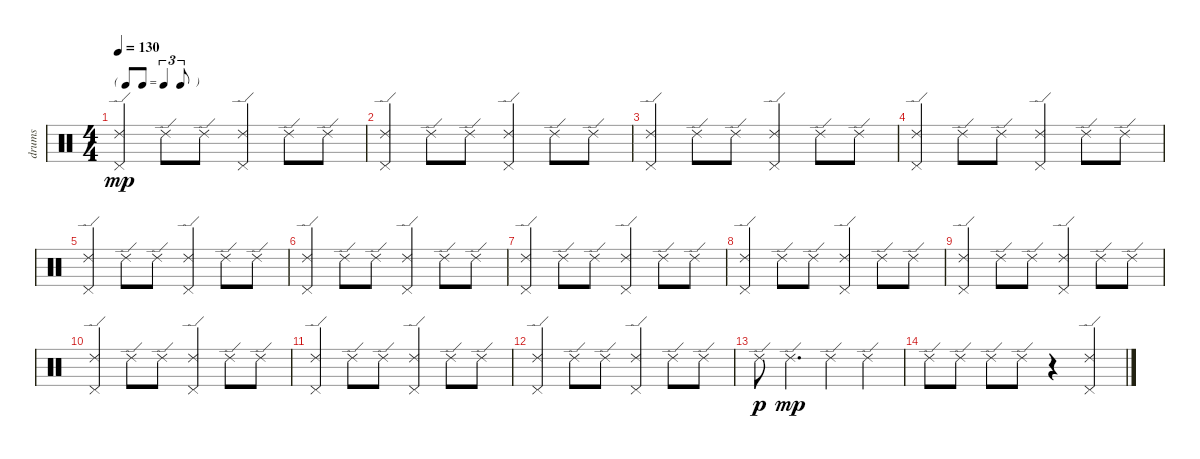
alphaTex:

\track ("drums" "drums") {instrument percussion}
\staff {score}
\articulation defaults
\ts (4 4)
\tf triplet8th
\tempo 130
\clef neutral
\ks c
("Pedal Hi-Hat (hit)" "Ride (edge) 2").4{dy mp} "Ride (edge) 2".8 "Ride (edge) 2".8 ("Pedal Hi-Hat (hit)" "Ride (edge) 2").4 "Ride (edge) 2".8 "Ride (edge) 2".8 |
("Pedal Hi-Hat (hit)" "Ride (edge) 2").4 "Ride (edge) 2".8 "Ride (edge) 2".8 ("Pedal Hi-Hat (hit)" "Ride (edge) 2").4 "Ride (edge) 2".8 "Ride (edge) 2".8 |
("Pedal Hi-Hat (hit)" "Ride (edge) 2").4 "Ride (edge) 2".8 "Ride (edge) 2".8 ("Pedal Hi-Hat (hit)" "Ride (edge) 2").4 "Ride (edge) 2".8 "Ride (edge) 2".8 |
("Pedal Hi-Hat (hit)" "Ride (edge) 2").4 "Ride (edge) 2".8 "Ride (edge) 2".8 ("Pedal Hi-Hat (hit)" "Ride (edge) 2").4 "Ride (edge) 2".8 "Ride (edge) 2".8 |
("Pedal Hi-Hat (hit)" "Ride (edge) 2").4 "Ride (edge) 2".8 "Ride (edge) 2".8 ("Pedal Hi-Hat (hit)" "Ride (edge) 2").4 "Ride (edge) 2".8 "Ride (edge) 2".8 |
("Pedal Hi-Hat (hit)" "Ride (edge) 2").4 "Ride (edge) 2".8 "Ride (edge) 2".8 ("Pedal Hi-Hat (hit)" "Ride (edge) 2").4 "Ride (edge) 2".8 "Ride (edge) 2".8 |
("Pedal Hi-Hat (hit)" "Ride (edge) 2").4 "Ride (edge) 2".8 "Ride (edge) 2".8 ("Pedal Hi-Hat (hit)" "Ride (edge) 2").4 "Ride (edge) 2".8 "Ride (edge) 2".8 |
("Pedal Hi-Hat (hit)" "Ride (edge) 2").4 "Ride (edge) 2".8 "Ride (edge) 2".8 ("Pedal Hi-Hat (hit)" "Ride (edge) 2").4 "Ride (edge) 2".8 "Ride (edge) 2".8 |
("Pedal Hi-Hat (hit)" "Ride (edge) 2").4 "Ride (edge) 2".8 "Ride (edge) 2".8 ("Pedal Hi-Hat (hit)" "Ride (edge) 2").4 "Ride (edge) 2".8 "Ride (edge) 2".8 |
("Pedal Hi-Hat (hit)" "Ride (edge) 2").4 "Ride (edge) 2".8 "Ride (edge) 2".8 ("Pedal Hi-Hat (hit)" "Ride (edge) 2").4 "Ride (edge) 2".8 "Ride (edge) 2".8 |
("Pedal Hi-Hat (hit)" "Ride (edge) 2").4 "Ride (edge) 2".8 "Ride (edge) 2".8 ("Pedal Hi-Hat (hit)" "Ride (edge) 2").4 "Ride (edge) 2".8 "Ride (edge) 2".8 |
("Pedal Hi-Hat (hit)" "Ride (edge) 2").4 "Ride (edge) 2".8 "Ride (edge) 2".8 ("Pedal Hi-Hat (hit)" "Ride (edge) 2").4 "Ride (edge) 2".8 "Ride (edge) 2".8 |
"Ride (edge) 2".8{dy p} "Ride (edge) 2".4{d dy mp} "Ride (edge) 2".4 "Ride (edge) 2".4 |
"Ride (edge) 2".8 "Ride (edge) 2".8 "Ride (edge) 2".8 "Ride (edge) 2".8 r.4 ("Pedal Hi-Hat (hit)" "Ride (edge) 2").4
